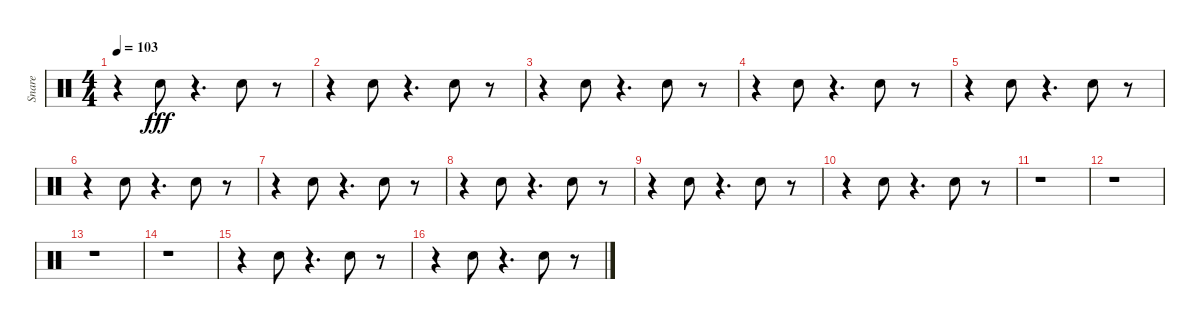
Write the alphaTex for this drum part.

\track ("Snare" "Snare") {instrument percussion}
\staff {score}
\articulation defaults
\ts (4 4)
\tempo 103
\clef neutral
\ks c
r.4{dy fff} "Electric Snare (hit)".8 r.4{d} "Electric Snare (hit)".8 r.8 |
r.4 "Electric Snare (hit)".8 r.4{d} "Electric Snare (hit)".8 r.8 |
r.4 "Electric Snare (hit)".8 r.4{d} "Electric Snare (hit)".8 r.8 |
r.4 "Electric Snare (hit)".8 r.4{d} "Electric Snare (hit)".8 r.8 |
r.4 "Electric Snare (hit)".8 r.4{d} "Electric Snare (hit)".8 r.8 |
r.4 "Electric Snare (hit)".8 r.4{d} "Electric Snare (hit)".8 r.8 |
r.4 "Electric Snare (hit)".8 r.4{d} "Electric Snare (hit)".8 r.8 |
r.4 "Electric Snare (hit)".8 r.4{d} "Electric Snare (hit)".8 r.8 |
r.4 "Electric Snare (hit)".8 r.4{d} "Electric Snare (hit)".8 r.8 |
r.4 "Electric Snare (hit)".8 r.4{d} "Electric Snare (hit)".8 r.8 |
r.1 |
r.1 |
r.1 |
r.1 |
r.4 "Electric Snare (hit)".8 r.4{d} "Electric Snare (hit)".8 r.8 |
r.4 "Electric Snare (hit)".8 r.4{d} "Electric Snare (hit)".8 r.8
